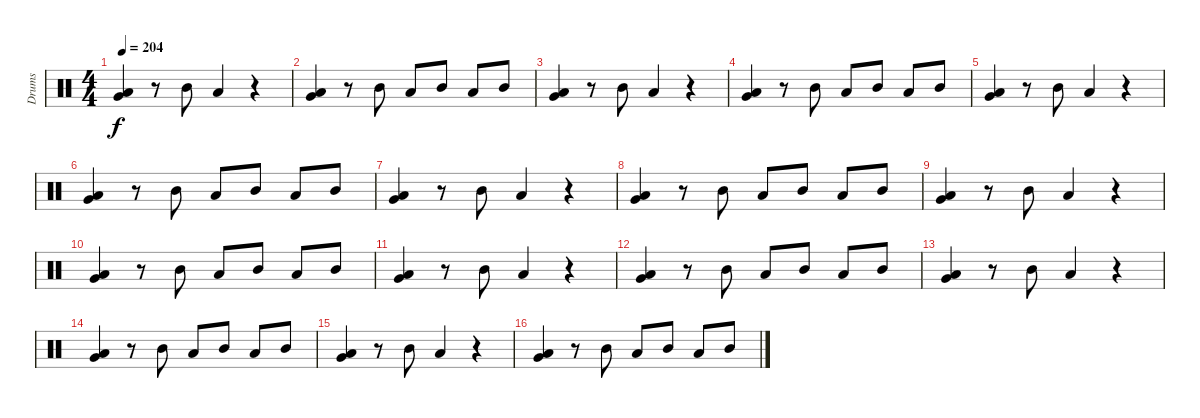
\track ("Drums" "Drums") {instrument percussion}
\staff {score}
\articulation defaults
\ts (4 4)
\tempo 204
\clef neutral
\ks c
("Low Tom (hit)" "Very Low Tom (hit)").4{dy f} r.8 "Mid Tom (hit)".8 "Low Tom (hit)".4 r.4 |
("Low Tom (hit)" "Very Low Tom (hit)").4 r.8 "Mid Tom (hit)".8 "Low Tom (hit)".8 "Mid Tom (hit)".8 "Low Tom (hit)".8 "Mid Tom (hit)".8 |
("Low Tom (hit)" "Very Low Tom (hit)").4 r.8 "Mid Tom (hit)".8 "Low Tom (hit)".4 r.4 |
("Low Tom (hit)" "Very Low Tom (hit)").4 r.8 "Mid Tom (hit)".8 "Low Tom (hit)".8 "Mid Tom (hit)".8 "Low Tom (hit)".8 "Mid Tom (hit)".8 |
("Very Low Tom (hit)" "Low Tom (hit)").4 r.8 "Mid Tom (hit)".8 "Low Tom (hit)".4 r.4 |
("Low Tom (hit)" "Very Low Tom (hit)").4 r.8 "Mid Tom (hit)".8 "Low Tom (hit)".8 "Mid Tom (hit)".8 "Low Tom (hit)".8 "Mid Tom (hit)".8 |
("Low Tom (hit)" "Very Low Tom (hit)").4 r.8 "Mid Tom (hit)".8 "Low Tom (hit)".4 r.4 |
("Low Tom (hit)" "Very Low Tom (hit)").4 r.8 "Mid Tom (hit)".8 "Low Tom (hit)".8 "Mid Tom (hit)".8 "Low Tom (hit)".8 "Mid Tom (hit)".8 |
("Low Tom (hit)" "Very Low Tom (hit)").4 r.8 "Mid Tom (hit)".8 "Low Tom (hit)".4 r.4 |
("Very Low Tom (hit)" "Low Tom (hit)").4 r.8 "Mid Tom (hit)".8 "Low Tom (hit)".8 "Mid Tom (hit)".8 "Low Tom (hit)".8 "Mid Tom (hit)".8 |
("Low Tom (hit)" "Very Low Tom (hit)").4 r.8 "Mid Tom (hit)".8 "Low Tom (hit)".4 r.4 |
("Very Low Tom (hit)" "Low Tom (hit)").4 r.8 "Mid Tom (hit)".8 "Low Tom (hit)".8 "Mid Tom (hit)".8 "Low Tom (hit)".8 "Mid Tom (hit)".8 |
("Very Low Tom (hit)" "Low Tom (hit)").4 r.8 "Mid Tom (hit)".8 "Low Tom (hit)".4 r.4 |
("Low Tom (hit)" "Very Low Tom (hit)").4 r.8 "Mid Tom (hit)".8 "Low Tom (hit)".8 "Mid Tom (hit)".8 "Low Tom (hit)".8 "Mid Tom (hit)".8 |
("Very Low Tom (hit)" "Low Tom (hit)").4 r.8 "Mid Tom (hit)".8 "Low Tom (hit)".4 r.4 |
("Very Low Tom (hit)" "Low Tom (hit)").4 r.8 "Mid Tom (hit)".8 "Low Tom (hit)".8 "Mid Tom (hit)".8 "Low Tom (hit)".8 "Mid Tom (hit)".8
